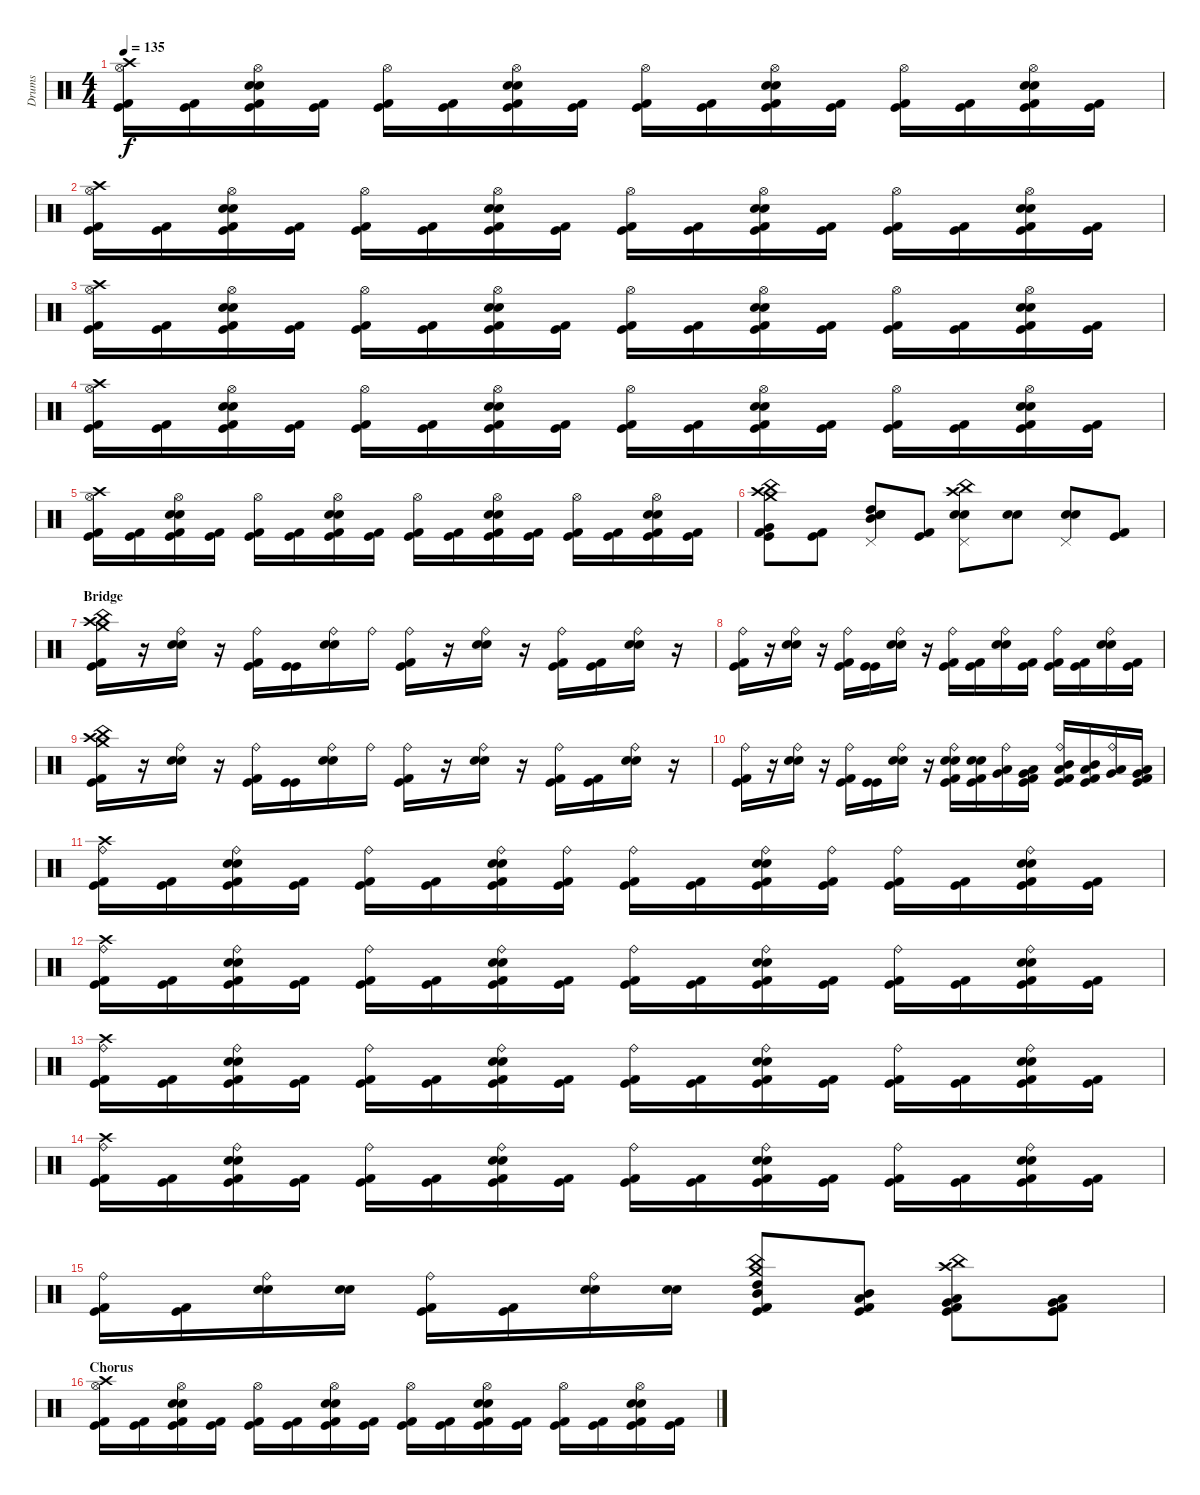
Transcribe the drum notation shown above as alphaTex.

\track ("Drums" "Drums") {instrument percussion}
\staff {score}
\articulation defaults
\ts (4 4)
\tempo 135
\clef neutral
\ks c
("Crash high (hit)" "Hi-Hat (open)" "Kick (hit) 2" "Kick (hit)").16{dy f} ("Kick (hit) 2" "Kick (hit)").16 ("Hi-Hat (open)" "Snare (hit) 2" "Electric Snare (hit)" "Kick (hit) 2" "Kick (hit)").16 ("Kick (hit) 2" "Kick (hit)").16 ("Hi-Hat (open)" "Kick (hit) 2" "Kick (hit)").16 ("Kick (hit) 2" "Kick (hit)").16 ("Hi-Hat (open)" "Snare (hit) 2" "Electric Snare (hit)" "Kick (hit) 2" "Kick (hit)").16 ("Kick (hit) 2" "Kick (hit)").16 ("Hi-Hat (open)" "Kick (hit) 2" "Kick (hit)").16 ("Kick (hit) 2" "Kick (hit)").16 ("Hi-Hat (open)" "Snare (hit) 2" "Electric Snare (hit)" "Kick (hit) 2" "Kick (hit)").16 ("Kick (hit) 2" "Kick (hit)").16 ("Hi-Hat (open)" "Kick (hit) 2" "Kick (hit)").16 ("Kick (hit) 2" "Kick (hit)").16 ("Hi-Hat (open)" "Snare (hit) 2" "Electric Snare (hit)" "Kick (hit) 2" "Kick (hit)").16 ("Kick (hit) 2" "Kick (hit)").16 |
("Crash high (hit)" "Hi-Hat (open)" "Kick (hit) 2" "Kick (hit)").16 ("Kick (hit) 2" "Kick (hit)").16 ("Hi-Hat (open)" "Snare (hit) 2" "Electric Snare (hit)" "Kick (hit) 2" "Kick (hit)").16 ("Kick (hit) 2" "Kick (hit)").16 ("Hi-Hat (open)" "Kick (hit) 2" "Kick (hit)").16 ("Kick (hit) 2" "Kick (hit)").16 ("Hi-Hat (open)" "Snare (hit) 2" "Electric Snare (hit)" "Kick (hit) 2" "Kick (hit)").16 ("Kick (hit) 2" "Kick (hit)").16 ("Hi-Hat (open)" "Kick (hit) 2" "Kick (hit)").16 ("Kick (hit) 2" "Kick (hit)").16 ("Hi-Hat (open)" "Snare (hit) 2" "Electric Snare (hit)" "Kick (hit) 2" "Kick (hit)").16 ("Kick (hit) 2" "Kick (hit)").16 ("Hi-Hat (open)" "Kick (hit) 2" "Kick (hit)").16 ("Kick (hit) 2" "Kick (hit)").16 ("Hi-Hat (open)" "Snare (hit) 2" "Electric Snare (hit)" "Kick (hit) 2" "Kick (hit)").16 ("Kick (hit) 2" "Kick (hit)").16 |
("Crash high (hit)" "Hi-Hat (open)" "Kick (hit) 2" "Kick (hit)").16 ("Kick (hit) 2" "Kick (hit)").16 ("Hi-Hat (open)" "Snare (hit) 2" "Electric Snare (hit)" "Kick (hit) 2" "Kick (hit)").16 ("Kick (hit) 2" "Kick (hit)").16 ("Hi-Hat (open)" "Kick (hit) 2" "Kick (hit)").16 ("Kick (hit) 2" "Kick (hit)").16 ("Hi-Hat (open)" "Snare (hit) 2" "Electric Snare (hit)" "Kick (hit) 2" "Kick (hit)").16 ("Kick (hit) 2" "Kick (hit)").16 ("Hi-Hat (open)" "Kick (hit) 2" "Kick (hit)").16 ("Kick (hit) 2" "Kick (hit)").16 ("Hi-Hat (open)" "Snare (hit) 2" "Electric Snare (hit)" "Kick (hit) 2" "Kick (hit)").16 ("Kick (hit) 2" "Kick (hit)").16 ("Hi-Hat (open)" "Kick (hit) 2" "Kick (hit)").16 ("Kick (hit) 2" "Kick (hit)").16 ("Hi-Hat (open)" "Snare (hit) 2" "Electric Snare (hit)" "Kick (hit) 2" "Kick (hit)").16 ("Kick (hit) 2" "Kick (hit)").16 |
("Crash high (hit)" "Hi-Hat (open)" "Kick (hit) 2" "Kick (hit)").16 ("Kick (hit) 2" "Kick (hit)").16 ("Hi-Hat (open)" "Snare (hit) 2" "Electric Snare (hit)" "Kick (hit) 2" "Kick (hit)").16 ("Kick (hit) 2" "Kick (hit)").16 ("Hi-Hat (open)" "Kick (hit) 2" "Kick (hit)").16 ("Kick (hit) 2" "Kick (hit)").16 ("Hi-Hat (open)" "Snare (hit) 2" "Electric Snare (hit)" "Kick (hit) 2" "Kick (hit)").16 ("Kick (hit) 2" "Kick (hit)").16 ("Hi-Hat (open)" "Kick (hit) 2" "Kick (hit)").16 ("Kick (hit) 2" "Kick (hit)").16 ("Hi-Hat (open)" "Snare (hit) 2" "Electric Snare (hit)" "Kick (hit) 2" "Kick (hit)").16 ("Kick (hit) 2" "Kick (hit)").16 ("Hi-Hat (open)" "Kick (hit) 2" "Kick (hit)").16 ("Kick (hit) 2" "Kick (hit)").16 ("Hi-Hat (open)" "Snare (hit) 2" "Electric Snare (hit)" "Kick (hit) 2" "Kick (hit)").16 ("Kick (hit) 2" "Kick (hit)").16 |
("Crash high (hit)" "Hi-Hat (open)" "Kick (hit) 2" "Kick (hit)").16 ("Kick (hit) 2" "Kick (hit)").16 ("Hi-Hat (open)" "Snare (hit) 2" "Electric Snare (hit)" "Kick (hit) 2" "Kick (hit)").16 ("Kick (hit) 2" "Kick (hit)").16 ("Hi-Hat (open)" "Kick (hit) 2" "Kick (hit)").16 ("Kick (hit) 2" "Kick (hit)").16 ("Hi-Hat (open)" "Snare (hit) 2" "Electric Snare (hit)" "Kick (hit) 2" "Kick (hit)").16 ("Kick (hit) 2" "Kick (hit)").16 ("Hi-Hat (open)" "Kick (hit) 2" "Kick (hit)").16 ("Kick (hit) 2" "Kick (hit)").16 ("Hi-Hat (open)" "Snare (hit) 2" "Electric Snare (hit)" "Kick (hit) 2" "Kick (hit)").16 ("Kick (hit) 2" "Kick (hit)").16 ("Hi-Hat (open)" "Kick (hit) 2" "Kick (hit)").16 ("Kick (hit) 2" "Kick (hit)").16 ("Hi-Hat (open)" "Snare (hit) 2" "Electric Snare (hit)" "Kick (hit) 2" "Kick (hit)").16 ("Kick (hit) 2" "Kick (hit)").16 |
("Crash high (hit)" "China (hit)" "Crash medium (hit)" "Very Low Tom (hit)" "Kick (hit) 2" "Kick (hit)").8 ("Kick (hit) 2" "Kick (hit)").8 ("Pedal Hi-Hat (hit)" "Mid Tom (hit)" "High Tom (hit)" "Snare (hit) 2" "Electric Snare (hit)").8 ("Kick (hit) 2" "Kick (hit)").8 ("Crash high (hit)" "Pedal Hi-Hat (hit)" "Electric Snare (hit)" "Snare (hit) 2" "China (hit)").8 ("Electric Snare (hit)" "Snare (hit) 2").8 ("Pedal Hi-Hat (hit)" "Electric Snare (hit)" "Snare (hit) 2").8 ("Kick (hit) 2" "Kick (hit)").8 |
\section ("" "Bridge")
("Crash high (hit)" "China (hit)" "Crash medium (hit)" "Kick (hit) 2" "Kick (hit)").16 r.16 ("Ride (bell)" "Snare (hit) 2" "Electric Snare (hit)").16 r.16 ("Ride (bell)" "Kick (hit) 2" "Kick (hit)").16 ("Kick (hit)" "Kick (hit)").16 ("Ride (bell)" "Electric Snare (hit)" "Snare (hit) 2").16 "Ride (bell)".16 ("Ride (bell)" "Kick (hit) 2" "Kick (hit)").16 r.16 ("Ride (bell)" "Electric Snare (hit)" "Snare (hit) 2").16 r.16 ("Ride (bell)" "Kick (hit) 2" "Kick (hit)").16 ("Kick (hit) 2" "Kick (hit)").16 ("Ride (bell)" "Electric Snare (hit)" "Snare (hit) 2").16 r.16 |
("Ride (bell)" "Kick (hit) 2" "Kick (hit)").16 r.16 ("Ride (bell)" "Snare (hit) 2" "Electric Snare (hit)").16 r.16 ("Ride (bell)" "Kick (hit) 2" "Kick (hit)").16 ("Kick (hit)" "Kick (hit)").16 ("Ride (bell)" "Electric Snare (hit)" "Snare (hit) 2").16 r.16 ("Ride (bell)" "Kick (hit) 2" "Kick (hit)").16 ("Kick (hit) 2" "Kick (hit)").16 ("Ride (bell)" "Electric Snare (hit)" "Snare (hit) 2").16 ("Kick (hit)" "Kick (hit) 2").16 ("Ride (bell)" "Kick (hit) 2" "Kick (hit)").16 ("Kick (hit) 2" "Kick (hit)").16 ("Ride (bell)" "Electric Snare (hit)" "Snare (hit) 2").16 ("Kick (hit) 2" "Kick (hit)").16 |
("Crash high (hit)" "China (hit)" "Crash medium (hit)" "Kick (hit) 2" "Kick (hit)").16 r.16 ("Ride (bell)" "Snare (hit) 2" "Electric Snare (hit)").16 r.16 ("Ride (bell)" "Kick (hit) 2" "Kick (hit)").16 ("Kick (hit)" "Kick (hit)").16 ("Ride (bell)" "Electric Snare (hit)" "Snare (hit) 2").16 "Ride (bell)".16 ("Ride (bell)" "Kick (hit) 2" "Kick (hit)").16 r.16 ("Ride (bell)" "Electric Snare (hit)" "Snare (hit) 2").16 r.16 ("Ride (bell)" "Kick (hit) 2" "Kick (hit)").16 ("Kick (hit) 2" "Kick (hit)").16 ("Ride (bell)" "Electric Snare (hit)" "Snare (hit) 2").16 r.16 |
("Ride (bell)" "Kick (hit) 2" "Kick (hit)").16 r.16 ("Ride (bell)" "Snare (hit) 2" "Electric Snare (hit)").16 r.16 ("Ride (bell)" "Kick (hit) 2" "Kick (hit)").16 ("Kick (hit)" "Kick (hit)").16 ("Ride (bell)" "Electric Snare (hit)" "Snare (hit) 2").16 r.16 ("Ride (bell)" "Electric Snare (hit)" "Snare (hit) 2" "Kick (hit) 2" "Kick (hit)").16 ("Snare (hit) 2" "Electric Snare (hit)" "Kick (hit) 2" "Kick (hit)").16 ("Ride (bell)" "Very Low Tom (hit)" "Low Tom (hit)").16 ("Very Low Tom (hit)" "Low Tom (hit)" "Kick (hit)" "Kick (hit) 2").16 ("Ride (bell)" "Mid Tom (hit)" "Low Tom (hit)" "Kick (hit) 2" "Kick (hit)").16 ("Mid Tom (hit)" "Low Tom (hit)" "Kick (hit) 2" "Kick (hit)").16 ("Ride (bell)" "Low Tom (hit)" "Very Low Tom (hit)").16 ("Low Tom (hit)" "Very Low Tom (hit)" "Kick (hit) 2" "Kick (hit)").16 |
("Crash high (hit)" "Ride (bell)" "Kick (hit) 2" "Kick (hit)").16 ("Kick (hit) 2" "Kick (hit)").16 ("Ride (bell)" "Snare (hit) 2" "Electric Snare (hit)" "Kick (hit) 2" "Kick (hit)").16 ("Kick (hit) 2" "Kick (hit)").16 ("Ride (bell)" "Kick (hit) 2" "Kick (hit)").16 ("Kick (hit) 2" "Kick (hit)").16 ("Ride (bell)" "Snare (hit) 2" "Electric Snare (hit)" "Kick (hit) 2" "Kick (hit)").16 ("Ride (bell)" "Kick (hit) 2" "Kick (hit)").16 ("Ride (bell)" "Kick (hit) 2" "Kick (hit)").16 ("Kick (hit) 2" "Kick (hit)").16 ("Ride (bell)" "Snare (hit) 2" "Electric Snare (hit)" "Kick (hit) 2" "Kick (hit)").16 ("Ride (bell)" "Kick (hit) 2" "Kick (hit)").16 ("Ride (bell)" "Kick (hit) 2" "Kick (hit)").16 ("Kick (hit) 2" "Kick (hit)").16 ("Ride (bell)" "Snare (hit) 2" "Electric Snare (hit)" "Kick (hit) 2" "Kick (hit)").16 ("Kick (hit) 2" "Kick (hit)").16 |
("Crash high (hit)" "Ride (bell)" "Kick (hit) 2" "Kick (hit)").16 ("Kick (hit) 2" "Kick (hit)").16 ("Ride (bell)" "Snare (hit) 2" "Electric Snare (hit)" "Kick (hit) 2" "Kick (hit)").16 ("Kick (hit) 2" "Kick (hit)").16 ("Ride (bell)" "Kick (hit) 2" "Kick (hit)").16 ("Kick (hit) 2" "Kick (hit)").16 ("Ride (bell)" "Snare (hit) 2" "Electric Snare (hit)" "Kick (hit) 2" "Kick (hit)").16 ("Kick (hit) 2" "Kick (hit)").16 ("Ride (bell)" "Kick (hit) 2" "Kick (hit)").16 ("Kick (hit) 2" "Kick (hit)").16 ("Ride (bell)" "Snare (hit) 2" "Electric Snare (hit)" "Kick (hit) 2" "Kick (hit)").16 ("Kick (hit) 2" "Kick (hit)").16 ("Ride (bell)" "Kick (hit) 2" "Kick (hit)").16 ("Kick (hit) 2" "Kick (hit)").16 ("Ride (bell)" "Snare (hit) 2" "Electric Snare (hit)" "Kick (hit) 2" "Kick (hit)").16 ("Kick (hit) 2" "Kick (hit)").16 |
("Crash high (hit)" "Ride (bell)" "Kick (hit) 2" "Kick (hit)").16 ("Kick (hit) 2" "Kick (hit)").16 ("Ride (bell)" "Snare (hit) 2" "Electric Snare (hit)" "Kick (hit) 2" "Kick (hit)").16 ("Kick (hit) 2" "Kick (hit)").16 ("Ride (bell)" "Kick (hit) 2" "Kick (hit)").16 ("Kick (hit) 2" "Kick (hit)").16 ("Ride (bell)" "Snare (hit) 2" "Electric Snare (hit)" "Kick (hit) 2" "Kick (hit)").16 ("Kick (hit) 2" "Kick (hit)").16 ("Ride (bell)" "Kick (hit) 2" "Kick (hit)").16 ("Kick (hit) 2" "Kick (hit)").16 ("Ride (bell)" "Snare (hit) 2" "Electric Snare (hit)" "Kick (hit) 2" "Kick (hit)").16 ("Kick (hit) 2" "Kick (hit)").16 ("Ride (bell)" "Kick (hit) 2" "Kick (hit)").16 ("Kick (hit) 2" "Kick (hit)").16 ("Ride (bell)" "Snare (hit) 2" "Electric Snare (hit)" "Kick (hit) 2" "Kick (hit)").16 ("Kick (hit) 2" "Kick (hit)").16 |
("Crash high (hit)" "Ride (bell)" "Kick (hit) 2" "Kick (hit)").16 ("Kick (hit) 2" "Kick (hit)").16 ("Ride (bell)" "Snare (hit) 2" "Electric Snare (hit)" "Kick (hit) 2" "Kick (hit)").16 ("Kick (hit) 2" "Kick (hit)").16 ("Ride (bell)" "Kick (hit) 2" "Kick (hit)").16 ("Kick (hit) 2" "Kick (hit)").16 ("Ride (bell)" "Snare (hit) 2" "Electric Snare (hit)" "Kick (hit) 2" "Kick (hit)").16 ("Kick (hit) 2" "Kick (hit)").16 ("Ride (bell)" "Kick (hit) 2" "Kick (hit)").16 ("Kick (hit) 2" "Kick (hit)").16 ("Ride (bell)" "Snare (hit) 2" "Electric Snare (hit)" "Kick (hit) 2" "Kick (hit)").16 ("Kick (hit) 2" "Kick (hit)").16 ("Ride (bell)" "Kick (hit) 2" "Kick (hit)").16 ("Kick (hit) 2" "Kick (hit)").16 ("Ride (bell)" "Snare (hit) 2" "Electric Snare (hit)" "Kick (hit) 2" "Kick (hit)").16 ("Kick (hit) 2" "Kick (hit)").16 |
("Ride (bell)" "Kick (hit) 2" "Kick (hit)").16 ("Kick (hit) 2" "Kick (hit)").16 ("Ride (bell)" "Electric Snare (hit)" "Snare (hit) 2").16 ("Electric Snare (hit)" "Snare (hit) 2").16 ("Ride (bell)" "Kick (hit) 2" "Kick (hit)").16 ("Kick (hit) 2" "Kick (hit)").16 ("Ride (bell)" "Electric Snare (hit)" "Snare (hit) 2").16 ("Electric Snare (hit)" "Snare (hit) 2").16 ("Crash medium (hit)" "China (hit)" "High Tom (hit)" "Mid Tom (hit)" "Kick (hit) 2" "Kick (hit)").8 ("Mid Tom (hit)" "Low Tom (hit)" "Kick (hit) 2" "Kick (hit)").8 ("Crash high (hit)" "China (hit)" "Low Tom (hit)" "Very Low Tom (hit)" "Kick (hit)" "Kick (hit) 2").8 ("Low Floor Tom (hit)" "Very Low Tom (hit)" "Kick (hit) 2" "Kick (hit)").8 |
\section ("" "Chorus")
("Crash high (hit)" "Hi-Hat (open)" "Kick (hit) 2" "Kick (hit)").16 ("Kick (hit) 2" "Kick (hit)").16 ("Hi-Hat (open)" "Snare (hit) 2" "Electric Snare (hit)" "Kick (hit) 2" "Kick (hit)").16 ("Kick (hit) 2" "Kick (hit)").16 ("Hi-Hat (open)" "Kick (hit) 2" "Kick (hit)").16 ("Kick (hit) 2" "Kick (hit)").16 ("Hi-Hat (open)" "Snare (hit) 2" "Electric Snare (hit)" "Kick (hit) 2" "Kick (hit)").16 ("Kick (hit) 2" "Kick (hit)").16 ("Hi-Hat (open)" "Kick (hit) 2" "Kick (hit)").16 ("Kick (hit) 2" "Kick (hit)").16 ("Hi-Hat (open)" "Snare (hit) 2" "Electric Snare (hit)" "Kick (hit) 2" "Kick (hit)").16 ("Kick (hit) 2" "Kick (hit)").16 ("Hi-Hat (open)" "Kick (hit) 2" "Kick (hit)").16 ("Kick (hit) 2" "Kick (hit)").16 ("Hi-Hat (open)" "Snare (hit) 2" "Electric Snare (hit)" "Kick (hit) 2" "Kick (hit)").16 ("Kick (hit) 2" "Kick (hit)").16
